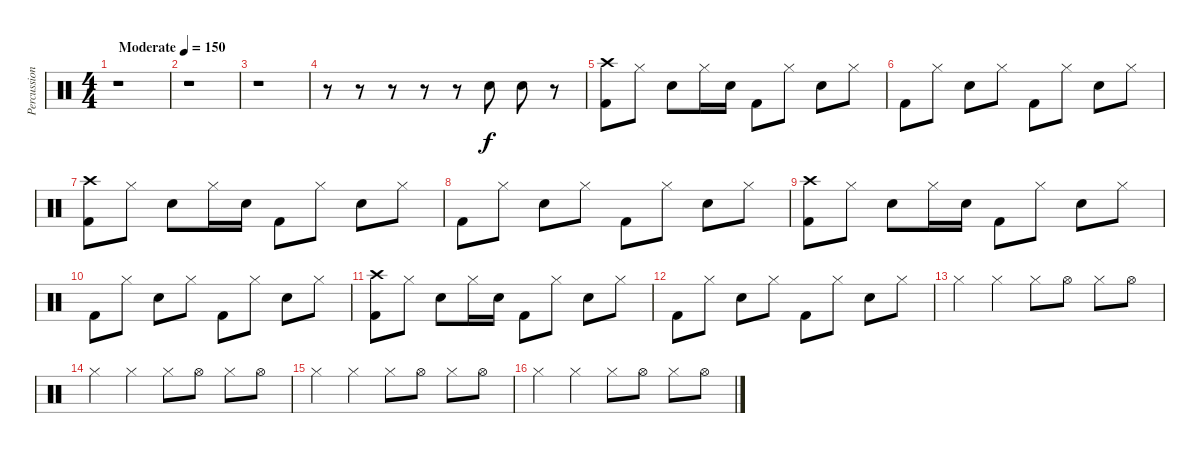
\track ("Percussion" "Percussion") {instrument percussion}
\staff {score}
\articulation defaults
\ts (4 4)
\tempo (150 "Moderate")
\clef neutral
\ks c
r.1{dy f} |
r.1 |
r.1 |
r.8 r.8 r.8 r.8 r.8 "Hand Clap (hit)".8 "Hand Clap (hit)".8 r.8 |
("Crash high (hit)" "Kick (hit) 2").8 "Hi-Hat (closed)".8 "Electric Snare (hit)".8 "Hi-Hat (closed)".16 "Electric Snare (hit)".16 "Kick (hit) 2".8 "Hi-Hat (closed)".8 "Electric Snare (hit)".8 "Hi-Hat (closed)".8 |
"Kick (hit) 2".8 "Hi-Hat (closed)".8 "Electric Snare (hit)".8 "Hi-Hat (closed)".8 "Kick (hit) 2".8 "Hi-Hat (closed)".8 "Electric Snare (hit)".8 "Hi-Hat (closed)".8 |
("Crash high (hit)" "Kick (hit) 2").8 "Hi-Hat (closed)".8 "Electric Snare (hit)".8 "Hi-Hat (closed)".16 "Electric Snare (hit)".16 "Kick (hit) 2".8 "Hi-Hat (closed)".8 "Electric Snare (hit)".8 "Hi-Hat (closed)".8 |
"Kick (hit) 2".8 "Hi-Hat (closed)".8 "Electric Snare (hit)".8 "Hi-Hat (closed)".8 "Kick (hit) 2".8 "Hi-Hat (closed)".8 "Electric Snare (hit)".8 "Hi-Hat (closed)".8 |
("Crash high (hit)" "Kick (hit) 2").8 "Hi-Hat (closed)".8 "Electric Snare (hit)".8 "Hi-Hat (closed)".16 "Electric Snare (hit)".16 "Kick (hit) 2".8 "Hi-Hat (closed)".8 "Electric Snare (hit)".8 "Hi-Hat (closed)".8 |
"Kick (hit) 2".8 "Hi-Hat (closed)".8 "Electric Snare (hit)".8 "Hi-Hat (closed)".8 "Kick (hit) 2".8 "Hi-Hat (closed)".8 "Electric Snare (hit)".8 "Hi-Hat (closed)".8 |
("Crash high (hit)" "Kick (hit) 2").8 "Hi-Hat (closed)".8 "Electric Snare (hit)".8 "Hi-Hat (closed)".16 "Electric Snare (hit)".16 "Kick (hit) 2".8 "Hi-Hat (closed)".8 "Electric Snare (hit)".8 "Hi-Hat (closed)".8 |
"Kick (hit) 2".8 "Hi-Hat (closed)".8 "Electric Snare (hit)".8 "Hi-Hat (closed)".8 "Kick (hit) 2".8 "Hi-Hat (closed)".8 "Electric Snare (hit)".8 "Hi-Hat (closed)".8 |
"Hi-Hat (closed)".4 "Hi-Hat (closed)".4 "Hi-Hat (closed)".8 "Hi-Hat (open)".8 "Hi-Hat (closed)".8 "Hi-Hat (open)".8 |
"Hi-Hat (closed)".4 "Hi-Hat (closed)".4 "Hi-Hat (closed)".8 "Hi-Hat (open)".8 "Hi-Hat (closed)".8 "Hi-Hat (open)".8 |
"Hi-Hat (closed)".4 "Hi-Hat (closed)".4 "Hi-Hat (closed)".8 "Hi-Hat (open)".8 "Hi-Hat (closed)".8 "Hi-Hat (open)".8 |
"Hi-Hat (closed)".4 "Hi-Hat (closed)".4 "Hi-Hat (closed)".8 "Hi-Hat (open)".8 "Hi-Hat (closed)".8 "Hi-Hat (open)".8
